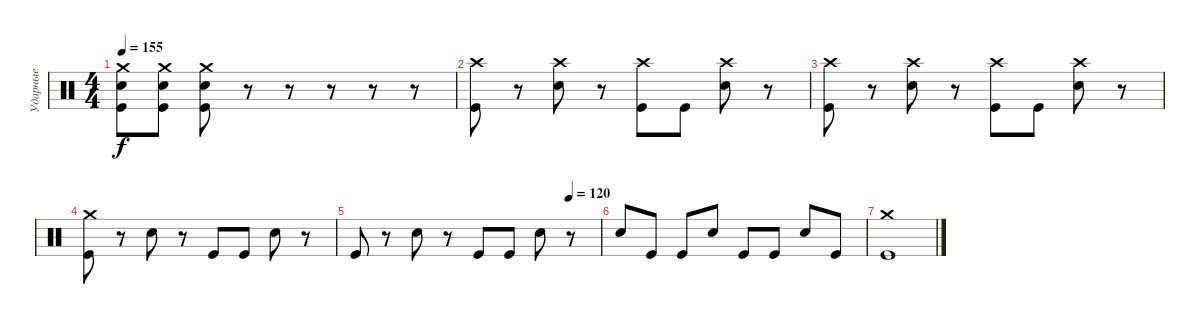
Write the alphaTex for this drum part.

\track ("Ударные" "Ударные") {instrument percussion}
\staff {score}
\articulation defaults
\ts (4 4)
\tempo 155
\clef neutral
\ks c
("Crash medium (hit)" "Kick (hit)" "Electric Snare (hit)").8{dy f} ("Crash medium (hit)" "Kick (hit)" "Electric Snare (hit)").8 ("Crash medium (hit)" "Kick (hit)" "Electric Snare (hit)").8 r.8 r.8 r.8 r.8 r.8 |
("Crash high (hit)" "Kick (hit)").8 r.8 ("Crash high (hit)" "Electric Snare (hit)").8 r.8 ("Crash high (hit)" "Kick (hit)").8 "Kick (hit)".8 ("Crash high (hit)" "Electric Snare (hit)").8 r.8 |
("Crash high (hit)" "Kick (hit)").8 r.8 ("Crash high (hit)" "Electric Snare (hit)").8 r.8 ("Crash high (hit)" "Kick (hit)").8 "Kick (hit)".8 ("Crash high (hit)" "Electric Snare (hit)").8 r.8 |
("Crash medium (hit)" "Kick (hit)").8 r.8 "Electric Snare (hit)".8 r.8 "Kick (hit)".8 "Kick (hit)".8 "Electric Snare (hit)".8 r.8 |
\tempo (120 0.875)
"Kick (hit)".8 r.8 "Electric Snare (hit)".8 r.8 "Kick (hit)".8 "Kick (hit)".8 "Electric Snare (hit)".8 r.8 |
"Electric Snare (hit)".8 "Kick (hit)".8 "Kick (hit)".8 "Electric Snare (hit)".8 "Kick (hit)".8 "Kick (hit)".8 "Electric Snare (hit)".8 "Kick (hit)".8 |
("Crash medium (hit)" "Kick (hit)").1
